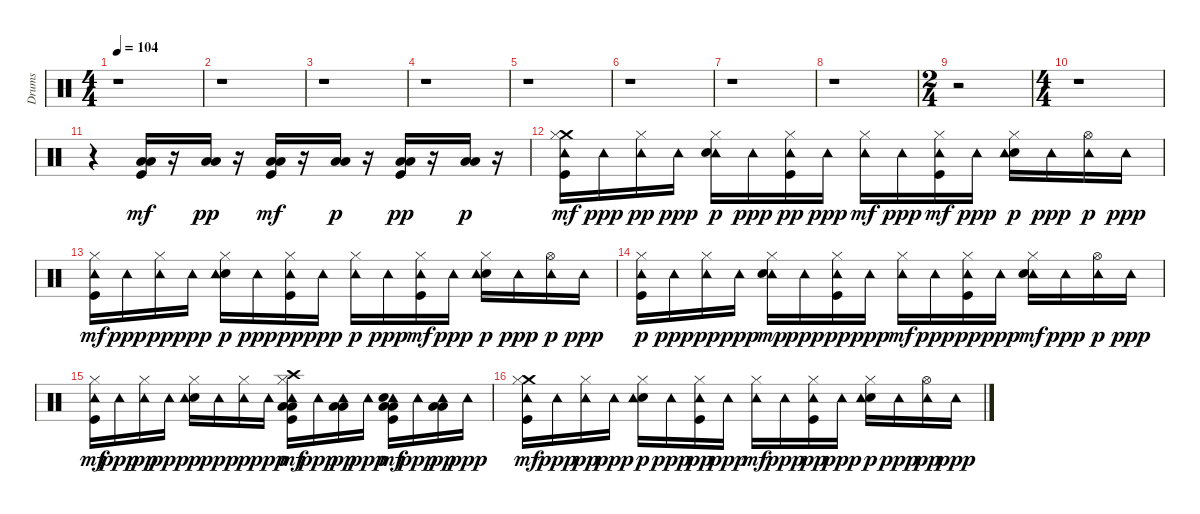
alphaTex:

\track ("Drums" "Drums") {instrument percussion}
\staff {score}
\articulation defaults
\ts (4 4)
\tempo 104
\clef neutral
\ks c
r.1{dy mf} |
r.1 |
r.1 |
r.1 |
r.1 |
r.1 |
r.1 |
r.1 |
\ts (2 4)
r.2 |
\ts (4 4)
r.1 |
r.4 ("Low Tom (hit)" "Low Floor Tom (hit)" "Kick (hit)").16 r.16 ("Low Floor Tom (hit)" "Low Tom (hit)").16{dy pp} r.16 ("Low Floor Tom (hit)" "Low Tom (hit)" "Kick (hit)").16{dy mf} r.16 ("Low Floor Tom (hit)" "Low Tom (hit)").16{dy p} r.16 ("Kick (hit)" "Low Tom (hit)" "Low Floor Tom (hit)").16{dy pp} r.16 ("Low Floor Tom (hit)" "Low Tom (hit)").16{dy p} r.16 |
("Tambourine (hit)" "Crash medium (hit)" "Hi-Hat (closed)" "Kick (hit)").16{dy mf} "Tambourine (hit)".16{dy ppp} ("Tambourine (hit)" "Hi-Hat (closed)").16{dy pp} "Tambourine (hit)".16{dy ppp} ("Tambourine (hit)" "Electric Snare (hit)" "Hi-Hat (closed)").16{dy p} "Tambourine (hit)".16{dy ppp} ("Kick (hit)" "Hi-Hat (closed)" "Tambourine (hit)").16{dy pp} "Tambourine (hit)".16{dy ppp} ("Tambourine (hit)" "Hi-Hat (closed)").16{dy mf} "Tambourine (hit)".16{dy ppp} ("Hi-Hat (closed)" "Tambourine (hit)" "Kick (hit)").16{dy mf} "Tambourine (hit)".16{dy ppp} ("Electric Snare (hit)" "Hi-Hat (closed)" "Tambourine (hit)").16{dy p} "Tambourine (hit)".16{dy ppp} ("Tambourine (hit)" "Hi-Hat (open)").16{dy p} "Tambourine (hit)".16{dy ppp} |
("Tambourine (hit)" "Hi-Hat (closed)" "Kick (hit)").16{dy mf} "Tambourine (hit)".16{dy ppp} ("Tambourine (hit)" "Hi-Hat (closed)").16{dy pp} "Tambourine (hit)".16{dy ppp} ("Electric Snare (hit)" "Hi-Hat (closed)" "Tambourine (hit)").16{dy p} "Tambourine (hit)".16{dy ppp} ("Tambourine (hit)" "Kick (hit)" "Hi-Hat (closed)").16{dy pp} "Tambourine (hit)".16{dy ppp} ("Hi-Hat (closed)" "Tambourine (hit)").16{dy p} "Tambourine (hit)".16{dy ppp} ("Tambourine (hit)" "Hi-Hat (closed)" "Kick (hit)").16{dy mf} "Tambourine (hit)".16{dy ppp} ("Electric Snare (hit)" "Tambourine (hit)" "Hi-Hat (closed)").16{dy p} "Tambourine (hit)".16{dy ppp} ("Tambourine (hit)" "Hi-Hat (open)").16{dy p} "Tambourine (hit)".16{dy ppp} |
("Kick (hit)" "Hi-Hat (closed)" "Tambourine (hit)").16{dy p} "Tambourine (hit)".16{dy ppp} ("Hi-Hat (closed)" "Tambourine (hit)").16{dy pp} "Tambourine (hit)".16{dy ppp} ("Tambourine (hit)" "Electric Snare (hit)" "Hi-Hat (closed)").16{dy mp} "Tambourine (hit)".16{dy ppp} ("Hi-Hat (closed)" "Kick (hit)" "Tambourine (hit)").16{dy pp} "Tambourine (hit)".16{dy ppp} ("Tambourine (hit)" "Hi-Hat (closed)").16{dy mf} "Tambourine (hit)".16{dy ppp} ("Kick (hit)" "Hi-Hat (closed)" "Tambourine (hit)").16{dy pp} "Tambourine (hit)".16{dy ppp} ("Hi-Hat (closed)" "Tambourine (hit)" "Electric Snare (hit)").16{dy mf} "Tambourine (hit)".16{dy ppp} ("Tambourine (hit)" "Hi-Hat (open)").16{dy p} "Tambourine (hit)".16{dy ppp} |
("Kick (hit)" "Tambourine (hit)" "Hi-Hat (closed)").16{dy mf} "Tambourine (hit)".16{dy ppp} ("Hi-Hat (closed)" "Tambourine (hit)").16{dy pp} "Tambourine (hit)".16{dy ppp} ("Electric Snare (hit)" "Hi-Hat (closed)" "Tambourine (hit)").16{dy p} "Tambourine (hit)".16{dy ppp} ("Tambourine (hit)" "Hi-Hat (closed)").16{dy p} "Tambourine (hit)".16{dy ppp} ("Tambourine (hit)" "Low Floor Tom (hit)" "Kick (hit)" "Hi-Hat (closed)" "Low Tom (hit)" "Crash high (hit)").16{dy mf} "Tambourine (hit)".16{dy ppp} ("Tambourine (hit)" "Low Floor Tom (hit)" "Low Tom (hit)").16{dy pp} "Tambourine (hit)".16{dy ppp} ("Low Floor Tom (hit)" "Kick (hit)" "Low Tom (hit)" "Tambourine (hit)" "Electric Snare (hit)").16{dy mf} "Tambourine (hit)".16{dy ppp} ("Low Tom (hit)" "Low Floor Tom (hit)" "Tambourine (hit)").16{dy pp} "Tambourine (hit)".16{dy ppp} |
("Crash medium (hit)" "Kick (hit)" "Tambourine (hit)" "Hi-Hat (closed)").16{dy mf} "Tambourine (hit)".16{dy ppp} ("Hi-Hat (closed)" "Tambourine (hit)").16{dy pp} "Tambourine (hit)".16{dy ppp} ("Electric Snare (hit)" "Tambourine (hit)" "Hi-Hat (closed)").16{dy p} "Tambourine (hit)".16{dy ppp} ("Tambourine (hit)" "Kick (hit)" "Hi-Hat (closed)").16{dy pp} "Tambourine (hit)".16{dy ppp} ("Tambourine (hit)" "Hi-Hat (closed)").16{dy mf} "Tambourine (hit)".16{dy ppp} ("Tambourine (hit)" "Kick (hit)" "Hi-Hat (closed)").16{dy pp} "Tambourine (hit)".16{dy ppp} ("Electric Snare (hit)" "Hi-Hat (closed)" "Tambourine (hit)").16{dy p} "Tambourine (hit)".16{dy ppp} ("Hi-Hat (open)" "Tambourine (hit)").16{dy pp} "Tambourine (hit)".16{dy ppp}
